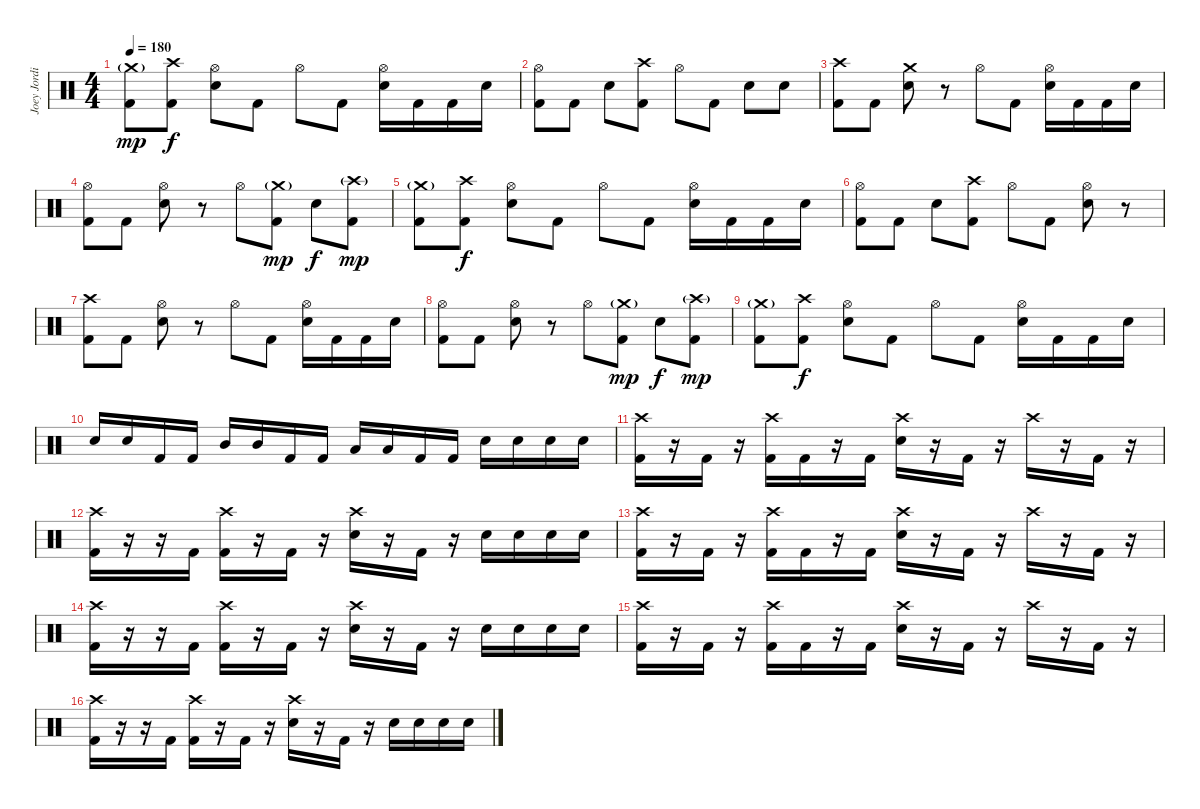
\track ("Joey Jordison" "Joey Jordi") {instrument percussion}
\staff {score}
\articulation defaults
\ts (4 4)
\tempo 180
\clef neutral
\ks c
("Crash medium (hit)"{g} "Kick (hit) 2").8{dy mp} ("Crash high (hit)" "Kick (hit) 2").8{dy f} ("Hi-Hat (open)" "Electric Snare (hit)").8 "Kick (hit) 2".8 "Hi-Hat (open)".8 "Kick (hit) 2".8 ("Hi-Hat (open)" "Electric Snare (hit)").16 "Kick (hit) 2".16 "Kick (hit) 2".16 "Electric Snare (hit)".16 |
("Hi-Hat (open)" "Kick (hit) 2").8 "Kick (hit) 2".8 "Electric Snare (hit)".8 ("Crash high (hit)" "Kick (hit) 2").8 "Hi-Hat (open)".8 "Kick (hit) 2".8 "Electric Snare (hit)".8 "Electric Snare (hit)".8 |
("Crash high (hit)" "Kick (hit) 2").8 "Kick (hit) 2".8 ("Crash medium (hit)" "Electric Snare (hit)").8 r.8 "Hi-Hat (open)".8 "Kick (hit) 2".8 ("Hi-Hat (open)" "Electric Snare (hit)").16 "Kick (hit) 2".16 "Kick (hit) 2".16 "Electric Snare (hit)".16 |
("Hi-Hat (open)" "Kick (hit) 2").8 "Kick (hit) 2".8 ("Hi-Hat (open)" "Electric Snare (hit)").8 r.8 "Hi-Hat (open)".8 ("Crash medium (hit)"{g} "Kick (hit) 2").8{dy mp} "Electric Snare (hit)".8{dy f} ("Crash high (hit)"{g} "Kick (hit) 2").8{dy mp} |
("Crash medium (hit)"{g} "Kick (hit) 2").8 ("Crash high (hit)" "Kick (hit) 2").8{dy f} ("Hi-Hat (open)" "Electric Snare (hit)").8 "Kick (hit) 2".8 "Hi-Hat (open)".8 "Kick (hit) 2".8 ("Hi-Hat (open)" "Electric Snare (hit)").16 "Kick (hit) 2".16 "Kick (hit) 2".16 "Electric Snare (hit)".16 |
("Hi-Hat (open)" "Kick (hit) 2").8 "Kick (hit) 2".8 "Electric Snare (hit)".8 ("Crash high (hit)" "Kick (hit) 2").8 "Hi-Hat (open)".8 "Kick (hit) 2".8 ("Hi-Hat (open)" "Electric Snare (hit)").8 r.8 |
("Crash high (hit)" "Kick (hit) 2").8 "Kick (hit) 2".8 ("Hi-Hat (open)" "Electric Snare (hit)").8 r.8 "Hi-Hat (open)".8 "Kick (hit) 2".8 ("Hi-Hat (open)" "Electric Snare (hit)").16 "Kick (hit) 2".16 "Kick (hit) 2".16 "Electric Snare (hit)".16 |
("Hi-Hat (open)" "Kick (hit) 2").8 "Kick (hit) 2".8 ("Hi-Hat (open)" "Electric Snare (hit)").8 r.8 "Hi-Hat (open)".8 ("Crash medium (hit)"{g} "Kick (hit) 2").8{dy mp} "Electric Snare (hit)".8{dy f} ("Crash high (hit)"{g} "Kick (hit) 2").8{dy mp} |
("Crash medium (hit)"{g} "Kick (hit) 2").8 ("Crash high (hit)" "Kick (hit) 2").8{dy f} ("Hi-Hat (open)" "Electric Snare (hit)").8 "Kick (hit) 2".8 "Hi-Hat (open)".8 "Kick (hit) 2".8 ("Hi-Hat (open)" "Electric Snare (hit)").16 "Kick (hit) 2".16 "Kick (hit) 2".16 "Electric Snare (hit)".16 |
"Electric Snare (hit)".16 "Electric Snare (hit)".16 "Kick (hit) 2".16 "Kick (hit) 2".16 "Mid Tom (hit)".16 "Mid Tom (hit)".16 "Kick (hit) 2".16 "Kick (hit) 2".16 "Low Tom (hit)".16 "Low Tom (hit)".16 "Kick (hit) 2".16 "Kick (hit) 2".16 "Electric Snare (hit)".16 "Electric Snare (hit)".16 "Electric Snare (hit)".16 "Electric Snare (hit)".16 |
("Crash high (hit)" "Kick (hit) 2").16 r.16 "Kick (hit) 2".16 r.16 ("Crash high (hit)" "Kick (hit) 2").16 "Kick (hit) 2".16 r.16 "Kick (hit) 2".16 ("Crash high (hit)" "Electric Snare (hit)").16 r.16 "Kick (hit) 2".16 r.16 "Crash high (hit)".16 r.16 "Kick (hit) 2".16 r.16 |
("Crash high (hit)" "Kick (hit) 2").16 r.16 r.16 "Kick (hit) 2".16 ("Crash high (hit)" "Kick (hit) 2").16 r.16 "Kick (hit) 2".16 r.16 ("Crash high (hit)" "Electric Snare (hit)").16 r.16 "Kick (hit) 2".16 r.16 "Electric Snare (hit)".16 "Electric Snare (hit)".16 "Electric Snare (hit)".16 "Electric Snare (hit)".16 |
("Crash high (hit)" "Kick (hit) 2").16 r.16 "Kick (hit) 2".16 r.16 ("Crash high (hit)" "Kick (hit) 2").16 "Kick (hit) 2".16 r.16 "Kick (hit) 2".16 ("Crash high (hit)" "Electric Snare (hit)").16 r.16 "Kick (hit) 2".16 r.16 "Crash high (hit)".16 r.16 "Kick (hit) 2".16 r.16 |
("Crash high (hit)" "Kick (hit) 2").16 r.16 r.16 "Kick (hit) 2".16 ("Crash high (hit)" "Kick (hit) 2").16 r.16 "Kick (hit) 2".16 r.16 ("Crash high (hit)" "Electric Snare (hit)").16 r.16 "Kick (hit) 2".16 r.16 "Electric Snare (hit)".16 "Electric Snare (hit)".16 "Electric Snare (hit)".16 "Electric Snare (hit)".16 |
("Crash high (hit)" "Kick (hit) 2").16 r.16 "Kick (hit) 2".16 r.16 ("Crash high (hit)" "Kick (hit) 2").16 "Kick (hit) 2".16 r.16 "Kick (hit) 2".16 ("Crash high (hit)" "Electric Snare (hit)").16 r.16 "Kick (hit) 2".16 r.16 "Crash high (hit)".16 r.16 "Kick (hit) 2".16 r.16 |
("Crash high (hit)" "Kick (hit) 2").16 r.16 r.16 "Kick (hit) 2".16 ("Crash high (hit)" "Kick (hit) 2").16 r.16 "Kick (hit) 2".16 r.16 ("Crash high (hit)" "Electric Snare (hit)").16 r.16 "Kick (hit) 2".16 r.16 "Electric Snare (hit)".16 "Electric Snare (hit)".16 "Electric Snare (hit)".16 "Electric Snare (hit)".16
